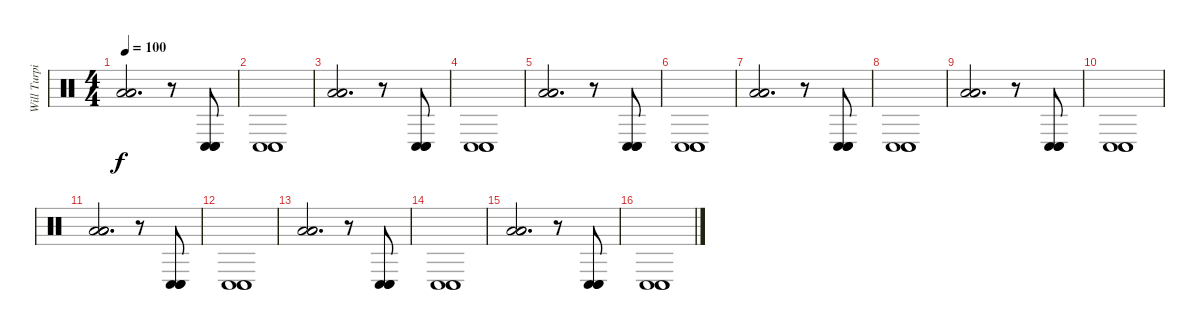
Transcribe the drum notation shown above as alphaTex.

\track ("Will Turpin" "Will Turpi") {instrument percussion}
\staff {score}
\articulation defaults
\ts (4 4)
\tempo 100
\clef neutral
\ks c
("Low Tom (hit)" "Low Tom (hit)" "Low Tom (hit)").2{d dy f} r.8 ("Conga low (hit)" "Conga low (hit)" "Conga low (hit)").8 |
("Conga low (hit)" "Conga low (hit)" "Conga low (hit)").1 |
("Low Tom (hit)" "Low Tom (hit)" "Low Tom (hit)").2{d} r.8 ("Conga low (hit)" "Conga low (hit)" "Conga low (hit)").8 |
("Conga low (hit)" "Conga low (hit)" "Conga low (hit)").1 |
("Low Tom (hit)" "Low Tom (hit)" "Low Tom (hit)").2{d} r.8 ("Conga low (hit)" "Conga low (hit)" "Conga low (hit)").8 |
("Conga low (hit)" "Conga low (hit)" "Conga low (hit)").1 |
("Low Tom (hit)" "Low Tom (hit)" "Low Tom (hit)").2{d} r.8 ("Conga low (hit)" "Conga low (hit)" "Conga low (hit)").8 |
("Conga low (hit)" "Conga low (hit)" "Conga low (hit)").1 |
("Low Tom (hit)" "Low Tom (hit)" "Low Tom (hit)").2{d} r.8 ("Conga low (hit)" "Conga low (hit)" "Conga low (hit)").8 |
("Conga low (hit)" "Conga low (hit)" "Conga low (hit)").1 |
("Low Tom (hit)" "Low Tom (hit)" "Low Tom (hit)").2{d} r.8 ("Conga low (hit)" "Conga low (hit)" "Conga low (hit)").8 |
("Conga low (hit)" "Conga low (hit)" "Conga low (hit)").1 |
("Low Tom (hit)" "Low Tom (hit)" "Low Tom (hit)").2{d} r.8 ("Conga low (hit)" "Conga low (hit)" "Conga low (hit)").8 |
("Conga low (hit)" "Conga low (hit)" "Conga low (hit)").1 |
("Low Tom (hit)" "Low Tom (hit)" "Low Tom (hit)").2{d} r.8 ("Conga low (hit)" "Conga low (hit)" "Conga low (hit)").8 |
("Conga low (hit)" "Conga low (hit)" "Conga low (hit)").1
